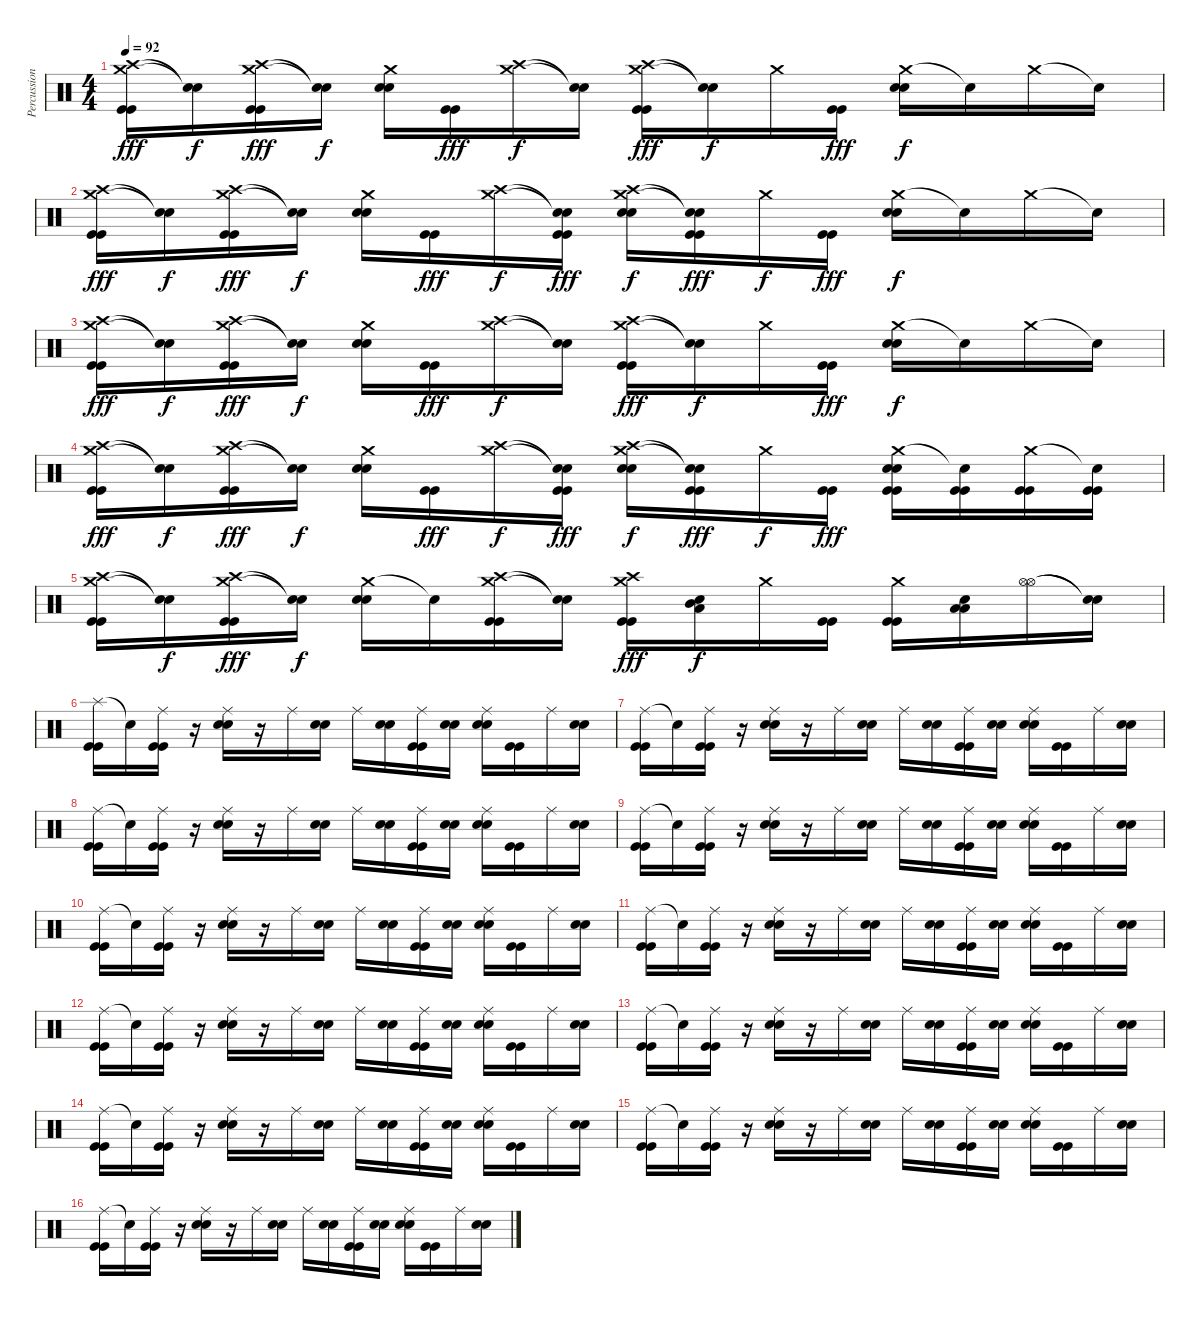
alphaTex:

\track ("Percussions" "Percussion") {instrument percussion}
\staff {score}
\articulation defaults
\ts (4 4)
\tempo 92
\clef neutral
\ks c
("Crash medium (hit)" "Crash high (hit)" "Kick (hit)" "Kick (hit)").16{dy fff} ("Snare (hit)"{t} "Snare (hit)"{t}).16{dy f} ("Crash medium (hit)" "Crash high (hit)" "Kick (hit)" "Kick (hit)").16{dy fff} ("Snare (hit)"{t} "Snare (hit)"{t}).16{dy f} ("Crash medium (hit)" "Electric Snare (hit)" "Electric Snare (hit)").16 ("Kick (hit)" "Kick (hit)").16{dy fff} ("Crash medium (hit)" "Crash high (hit)").16{dy f} ("Snare (hit)"{t} "Snare (hit)"{t}).16 ("Crash medium (hit)" "Crash high (hit)" "Kick (hit)" "Kick (hit)").16{dy fff} ("Snare (hit)"{t} "Snare (hit)"{t}).16{dy f} "Crash medium (hit)".16 ("Kick (hit)" "Kick (hit)").16{dy fff} ("Crash medium (hit)" "Electric Snare (hit)" "Electric Snare (hit)").16{dy f} "Snare (hit)"{t}.16 "Crash medium (hit)".16 "Snare (hit)"{t}.16 |
("Crash medium (hit)" "Crash high (hit)" "Kick (hit)" "Kick (hit)").16{dy fff} ("Snare (hit)"{t} "Snare (hit)"{t}).16{dy f} ("Crash medium (hit)" "Crash high (hit)" "Kick (hit)" "Kick (hit)").16{dy fff} ("Snare (hit)"{t} "Snare (hit)"{t}).16{dy f} ("Crash medium (hit)" "Electric Snare (hit)" "Electric Snare (hit)").16 ("Kick (hit)" "Kick (hit)").16{dy fff} ("Crash medium (hit)" "Crash high (hit)").16{dy f} ("Snare (hit)"{t} "Snare (hit)"{t} "Kick (hit)" "Kick (hit)").16{dy fff} ("Crash medium (hit)" "Crash high (hit)" "Electric Snare (hit)" "Electric Snare (hit)").16{dy f} ("Snare (hit)"{t} "Snare (hit)"{t} "Kick (hit)" "Kick (hit)").16{dy fff} "Crash medium (hit)".16{dy f} ("Kick (hit)" "Kick (hit)").16{dy fff} ("Crash medium (hit)" "Electric Snare (hit)" "Electric Snare (hit)").16{dy f} "Snare (hit)"{t}.16 "Crash medium (hit)".16 "Snare (hit)"{t}.16 |
("Crash medium (hit)" "Crash high (hit)" "Kick (hit)" "Kick (hit)").16{dy fff} ("Snare (hit)"{t} "Snare (hit)"{t}).16{dy f} ("Crash medium (hit)" "Crash high (hit)" "Kick (hit)" "Kick (hit)").16{dy fff} ("Snare (hit)"{t} "Snare (hit)"{t}).16{dy f} ("Crash medium (hit)" "Electric Snare (hit)" "Electric Snare (hit)").16 ("Kick (hit)" "Kick (hit)").16{dy fff} ("Crash medium (hit)" "Crash high (hit)").16{dy f} ("Snare (hit)"{t} "Snare (hit)"{t}).16 ("Crash medium (hit)" "Crash high (hit)" "Kick (hit)" "Kick (hit)").16{dy fff} ("Snare (hit)"{t} "Snare (hit)"{t}).16{dy f} "Crash medium (hit)".16 ("Kick (hit)" "Kick (hit)").16{dy fff} ("Crash medium (hit)" "Electric Snare (hit)" "Electric Snare (hit)").16{dy f} "Snare (hit)"{t}.16 "Crash medium (hit)".16 "Snare (hit)"{t}.16 |
("Crash medium (hit)" "Crash high (hit)" "Kick (hit)" "Kick (hit)").16{dy fff} ("Snare (hit)"{t} "Snare (hit)"{t}).16{dy f} ("Crash medium (hit)" "Crash high (hit)" "Kick (hit)" "Kick (hit)").16{dy fff} ("Snare (hit)"{t} "Snare (hit)"{t}).16{dy f} ("Crash medium (hit)" "Electric Snare (hit)" "Electric Snare (hit)").16 ("Kick (hit)" "Kick (hit)").16{dy fff} ("Crash medium (hit)" "Crash high (hit)").16{dy f} ("Snare (hit)"{t} "Snare (hit)"{t} "Kick (hit)" "Kick (hit)").16{dy fff} ("Crash medium (hit)" "Crash high (hit)" "Electric Snare (hit)" "Electric Snare (hit)").16{dy f} ("Snare (hit)"{t} "Snare (hit)"{t} "Kick (hit)" "Kick (hit)").16{dy fff} "Crash medium (hit)".16{dy f} ("Kick (hit)" "Kick (hit)").16{dy fff} ("Crash medium (hit)" "Electric Snare (hit)" "Electric Snare (hit)" "Kick (hit)" "Kick (hit)").16 ("Snare (hit)"{t} "Kick (hit)" "Kick (hit)").16 ("Crash medium (hit)" "Kick (hit)" "Kick (hit)").16 ("Snare (hit)"{t} "Kick (hit)" "Kick (hit)").16 |
("Crash medium (hit)" "Crash high (hit)" "Kick (hit)" "Kick (hit)").16 ("Snare (hit)"{t} "Snare (hit)"{t}).16{dy f} ("Crash medium (hit)" "Crash high (hit)" "Kick (hit)" "Kick (hit)").16{dy fff} ("Snare (hit)"{t} "Snare (hit)"{t}).16{dy f} ("Crash medium (hit)" "Electric Snare (hit)" "Electric Snare (hit)").16 "Snare (hit)"{t}.16 ("Crash medium (hit)" "Crash high (hit)" "Kick (hit)" "Kick (hit)").16 ("Snare (hit)"{t} "Snare (hit)"{t}).16 ("Crash medium (hit)" "Crash high (hit)" "Kick (hit)" "Kick (hit)").16{dy fff} ("Mid Tom (hit)" "Low Floor Tom (hit)" "Electric Snare (hit)").16{dy f} "Crash medium (hit)".16 ("Kick (hit)" "Kick (hit)").16 ("Crash medium (hit)" "Kick (hit)" "Kick (hit)").16 ("Low Floor Tom (hit)" "Low Floor Tom (hit)" "Electric Snare (hit)").16 ("Hi-Hat (open)" "Hi-Hat (open)").16 ("Snare (hit)"{t} "Snare (hit)"{t}).16 |
("Splash (hit)" "Kick (hit)" "Kick (hit)").16{volume 12} "Snare (hit)"{t}.16 ("Ride (middle)" "Kick (hit)" "Kick (hit)").16 r.16 ("Ride (middle)" "Electric Snare (hit)" "Electric Snare (hit)").16 r.16 "Ride (middle)".16 ("Electric Snare (hit)" "Electric Snare (hit)").16 "Ride (middle)".16 ("Electric Snare (hit)" "Electric Snare (hit)").16 ("Ride (middle)" "Kick (hit)" "Kick (hit)").16 ("Electric Snare (hit)" "Electric Snare (hit)").16 ("Ride (middle)" "Electric Snare (hit)" "Electric Snare (hit)").16 ("Kick (hit)" "Kick (hit)").16 "Ride (middle)".16 ("Electric Snare (hit)" "Electric Snare (hit)").16 |
("Ride (middle)" "Kick (hit)" "Kick (hit)").16 "Snare (hit)"{t}.16 ("Ride (middle)" "Kick (hit)" "Kick (hit)").16 r.16 ("Ride (middle)" "Electric Snare (hit)" "Electric Snare (hit)").16 r.16 "Ride (middle)".16 ("Electric Snare (hit)" "Electric Snare (hit)").16 "Ride (middle)".16 ("Electric Snare (hit)" "Electric Snare (hit)").16 ("Ride (middle)" "Kick (hit)" "Kick (hit)").16 ("Electric Snare (hit)" "Electric Snare (hit)").16 ("Ride (middle)" "Electric Snare (hit)" "Electric Snare (hit)").16 ("Kick (hit)" "Kick (hit)").16 "Ride (middle)".16 ("Electric Snare (hit)" "Electric Snare (hit)").16 |
("Ride (middle)" "Kick (hit)" "Kick (hit)").16 "Snare (hit)"{t}.16 ("Ride (middle)" "Kick (hit)" "Kick (hit)").16 r.16 ("Ride (middle)" "Electric Snare (hit)" "Electric Snare (hit)").16 r.16 "Ride (middle)".16 ("Electric Snare (hit)" "Electric Snare (hit)").16 "Ride (middle)".16 ("Electric Snare (hit)" "Electric Snare (hit)").16 ("Ride (middle)" "Kick (hit)" "Kick (hit)").16 ("Electric Snare (hit)" "Electric Snare (hit)").16 ("Ride (middle)" "Electric Snare (hit)" "Electric Snare (hit)").16 ("Kick (hit)" "Kick (hit)").16 "Ride (middle)".16 ("Electric Snare (hit)" "Electric Snare (hit)").16 |
("Ride (middle)" "Kick (hit)" "Kick (hit)").16 "Snare (hit)"{t}.16 ("Ride (middle)" "Kick (hit)" "Kick (hit)").16 r.16 ("Ride (middle)" "Electric Snare (hit)" "Electric Snare (hit)").16 r.16 "Ride (middle)".16 ("Electric Snare (hit)" "Electric Snare (hit)").16 "Ride (middle)".16 ("Electric Snare (hit)" "Electric Snare (hit)").16 ("Ride (middle)" "Kick (hit)" "Kick (hit)").16 ("Electric Snare (hit)" "Electric Snare (hit)").16 ("Ride (middle)" "Electric Snare (hit)" "Electric Snare (hit)").16 ("Kick (hit)" "Kick (hit)").16 "Ride (middle)".16 ("Electric Snare (hit)" "Electric Snare (hit)").16 |
("Ride (middle)" "Kick (hit)" "Kick (hit)").16 "Snare (hit)"{t}.16 ("Ride (middle)" "Kick (hit)" "Kick (hit)").16 r.16 ("Ride (middle)" "Electric Snare (hit)" "Electric Snare (hit)").16 r.16 "Ride (middle)".16 ("Electric Snare (hit)" "Electric Snare (hit)").16 "Ride (middle)".16 ("Electric Snare (hit)" "Electric Snare (hit)").16 ("Ride (middle)" "Kick (hit)" "Kick (hit)").16 ("Electric Snare (hit)" "Electric Snare (hit)").16 ("Ride (middle)" "Electric Snare (hit)" "Electric Snare (hit)").16 ("Kick (hit)" "Kick (hit)").16 "Ride (middle)".16 ("Electric Snare (hit)" "Electric Snare (hit)").16 |
("Ride (middle)" "Kick (hit)" "Kick (hit)").16 "Snare (hit)"{t}.16 ("Ride (middle)" "Kick (hit)" "Kick (hit)").16 r.16 ("Ride (middle)" "Electric Snare (hit)" "Electric Snare (hit)").16 r.16 "Ride (middle)".16 ("Electric Snare (hit)" "Electric Snare (hit)").16 "Ride (middle)".16 ("Electric Snare (hit)" "Electric Snare (hit)").16 ("Ride (middle)" "Kick (hit)" "Kick (hit)").16 ("Electric Snare (hit)" "Electric Snare (hit)").16 ("Ride (middle)" "Electric Snare (hit)" "Electric Snare (hit)").16 ("Kick (hit)" "Kick (hit)").16 "Ride (middle)".16 ("Electric Snare (hit)" "Electric Snare (hit)").16 |
("Ride (middle)" "Kick (hit)" "Kick (hit)").16 "Snare (hit)"{t}.16 ("Ride (middle)" "Kick (hit)" "Kick (hit)").16 r.16 ("Ride (middle)" "Electric Snare (hit)" "Electric Snare (hit)").16 r.16 "Ride (middle)".16 ("Electric Snare (hit)" "Electric Snare (hit)").16 "Ride (middle)".16 ("Electric Snare (hit)" "Electric Snare (hit)").16 ("Ride (middle)" "Kick (hit)" "Kick (hit)").16 ("Electric Snare (hit)" "Electric Snare (hit)").16 ("Ride (middle)" "Electric Snare (hit)" "Electric Snare (hit)").16 ("Kick (hit)" "Kick (hit)").16 "Ride (middle)".16 ("Electric Snare (hit)" "Electric Snare (hit)").16 |
("Ride (middle)" "Kick (hit)" "Kick (hit)").16 "Snare (hit)"{t}.16 ("Ride (middle)" "Kick (hit)" "Kick (hit)").16 r.16 ("Ride (middle)" "Electric Snare (hit)" "Electric Snare (hit)").16 r.16 "Ride (middle)".16 ("Electric Snare (hit)" "Electric Snare (hit)").16 "Ride (middle)".16 ("Electric Snare (hit)" "Electric Snare (hit)").16 ("Ride (middle)" "Kick (hit)" "Kick (hit)").16 ("Electric Snare (hit)" "Electric Snare (hit)").16 ("Ride (middle)" "Electric Snare (hit)" "Electric Snare (hit)").16 ("Kick (hit)" "Kick (hit)").16 "Ride (middle)".16 ("Electric Snare (hit)" "Electric Snare (hit)").16 |
("Ride (middle)" "Kick (hit)" "Kick (hit)").16 "Snare (hit)"{t}.16 ("Ride (middle)" "Kick (hit)" "Kick (hit)").16 r.16 ("Ride (middle)" "Electric Snare (hit)" "Electric Snare (hit)").16 r.16 "Ride (middle)".16 ("Electric Snare (hit)" "Electric Snare (hit)").16 "Ride (middle)".16 ("Electric Snare (hit)" "Electric Snare (hit)").16 ("Ride (middle)" "Kick (hit)" "Kick (hit)").16 ("Electric Snare (hit)" "Electric Snare (hit)").16 ("Ride (middle)" "Electric Snare (hit)" "Electric Snare (hit)").16 ("Kick (hit)" "Kick (hit)").16 "Ride (middle)".16 ("Electric Snare (hit)" "Electric Snare (hit)").16 |
("Ride (middle)" "Kick (hit)" "Kick (hit)").16 "Snare (hit)"{t}.16 ("Ride (middle)" "Kick (hit)" "Kick (hit)").16 r.16 ("Ride (middle)" "Electric Snare (hit)" "Electric Snare (hit)").16 r.16 "Ride (middle)".16 ("Electric Snare (hit)" "Electric Snare (hit)").16 "Ride (middle)".16 ("Electric Snare (hit)" "Electric Snare (hit)").16 ("Ride (middle)" "Kick (hit)" "Kick (hit)").16 ("Electric Snare (hit)" "Electric Snare (hit)").16 ("Ride (middle)" "Electric Snare (hit)" "Electric Snare (hit)").16 ("Kick (hit)" "Kick (hit)").16 "Ride (middle)".16 ("Electric Snare (hit)" "Electric Snare (hit)").16 |
("Ride (middle)" "Kick (hit)" "Kick (hit)").16 "Snare (hit)"{t}.16 ("Ride (middle)" "Kick (hit)" "Kick (hit)").16 r.16 ("Ride (middle)" "Electric Snare (hit)" "Electric Snare (hit)").16 r.16 "Ride (middle)".16 ("Electric Snare (hit)" "Electric Snare (hit)").16 "Ride (middle)".16 ("Electric Snare (hit)" "Electric Snare (hit)").16 ("Ride (middle)" "Kick (hit)" "Kick (hit)").16 ("Electric Snare (hit)" "Electric Snare (hit)").16 ("Ride (middle)" "Electric Snare (hit)" "Electric Snare (hit)").16 ("Kick (hit)" "Kick (hit)").16 "Ride (middle)".16 ("Electric Snare (hit)" "Electric Snare (hit)").16
